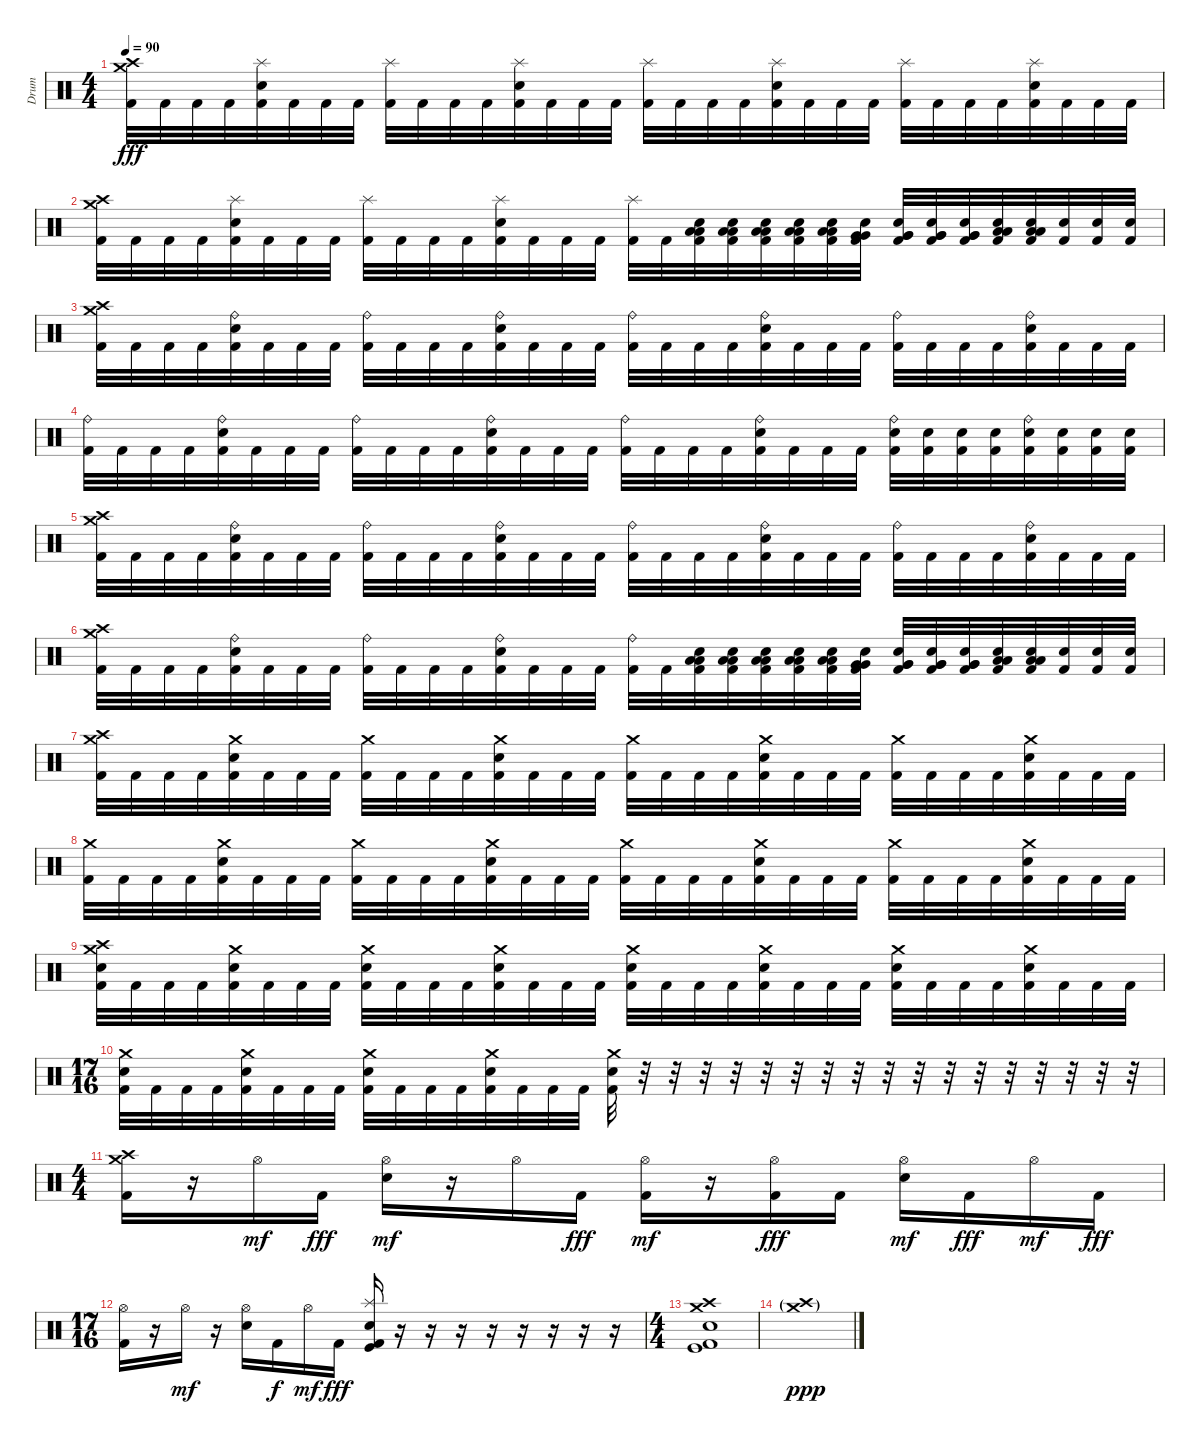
\track ("Drum" "Drum") {instrument percussion}
\staff {score}
\articulation defaults
\ts (4 4)
\tempo 90
\clef neutral
\ks c
("Crash medium (hit)" "Crash high (hit)" "Kick (hit) 2").32{dy fff} "Kick (hit) 2".32 "Kick (hit) 2".32 "Kick (hit) 2".32 ("Splash (hit)" "Electric Snare (hit)" "Kick (hit) 2").32 "Kick (hit) 2".32 "Kick (hit) 2".32 "Kick (hit) 2".32 ("Splash (hit)" "Kick (hit) 2").32 "Kick (hit) 2".32 "Kick (hit) 2".32 "Kick (hit) 2".32 ("Splash (hit)" "Electric Snare (hit)" "Kick (hit) 2").32 "Kick (hit) 2".32 "Kick (hit) 2".32 "Kick (hit) 2".32 ("Splash (hit)" "Kick (hit) 2").32 "Kick (hit) 2".32 "Kick (hit) 2".32 "Kick (hit) 2".32 ("Splash (hit)" "Electric Snare (hit)" "Kick (hit) 2").32 "Kick (hit) 2".32 "Kick (hit) 2".32 "Kick (hit) 2".32 ("Splash (hit)" "Kick (hit) 2").32 "Kick (hit) 2".32 "Kick (hit) 2".32 "Kick (hit) 2".32 ("Splash (hit)" "Electric Snare (hit)" "Kick (hit) 2").32 "Kick (hit) 2".32 "Kick (hit) 2".32 "Kick (hit) 2".32 |
("Crash medium (hit)" "Crash high (hit)" "Kick (hit) 2").32 "Kick (hit) 2".32 "Kick (hit) 2".32 "Kick (hit) 2".32 ("Splash (hit)" "Electric Snare (hit)" "Kick (hit) 2").32 "Kick (hit) 2".32 "Kick (hit) 2".32 "Kick (hit) 2".32 ("Splash (hit)" "Kick (hit) 2").32 "Kick (hit) 2".32 "Kick (hit) 2".32 "Kick (hit) 2".32 ("Splash (hit)" "Electric Snare (hit)" "Kick (hit) 2").32 "Kick (hit) 2".32 "Kick (hit) 2".32 "Kick (hit) 2".32 ("Splash (hit)" "Kick (hit) 2").32 "Kick (hit) 2".32 ("Snare (hit) 2" "Low Floor Tom (hit)" "Low Floor Tom (hit)" "Kick (hit) 2").32 ("Snare (hit) 2" "Low Floor Tom (hit)" "Low Floor Tom (hit)" "Kick (hit) 2").32 ("Snare (hit) 2" "Low Floor Tom (hit)" "Low Floor Tom (hit)" "Kick (hit) 2").32 ("Snare (hit) 2" "Low Floor Tom (hit)" "Low Floor Tom (hit)" "Kick (hit) 2").32 ("Snare (hit) 2" "Low Floor Tom (hit)" "Low Floor Tom (hit)" "Kick (hit) 2").32 ("Snare (hit) 2" "Very Low Tom (hit)" "Very Low Tom (hit)" "Kick (hit) 2").32 ("Snare (hit) 2" "Very Low Tom (hit)" "Very Low Tom (hit)" "Kick (hit) 2").32 ("Snare (hit) 2" "Very Low Tom (hit)" "Very Low Tom (hit)" "Kick (hit) 2").32 ("Snare (hit) 2" "Very Low Tom (hit)" "Very Low Tom (hit)" "Kick (hit) 2").32 ("Snare (hit) 2" "Low Tom (hit)" "Low Tom (hit)" "Kick (hit) 2").32 ("Snare (hit) 2" "Low Tom (hit)" "Low Tom (hit)" "Kick (hit) 2").32 ("Electric Snare (hit)" "Kick (hit) 2").32 ("Electric Snare (hit)" "Kick (hit) 2").32 ("Electric Snare (hit)" "Kick (hit) 2").32 |
("Crash medium (hit)" "Crash high (hit)" "Kick (hit) 2").32 "Kick (hit) 2".32 "Kick (hit) 2".32 "Kick (hit) 2".32 ("Ride (bell)" "Electric Snare (hit)" "Kick (hit) 2").32 "Kick (hit) 2".32 "Kick (hit) 2".32 "Kick (hit) 2".32 ("Ride (bell)" "Kick (hit) 2").32 "Kick (hit) 2".32 "Kick (hit) 2".32 "Kick (hit) 2".32 ("Ride (bell)" "Electric Snare (hit)" "Kick (hit) 2").32 "Kick (hit) 2".32 "Kick (hit) 2".32 "Kick (hit) 2".32 ("Ride (bell)" "Kick (hit) 2").32 "Kick (hit) 2".32 "Kick (hit) 2".32 "Kick (hit) 2".32 ("Ride (bell)" "Electric Snare (hit)" "Kick (hit) 2").32 "Kick (hit) 2".32 "Kick (hit) 2".32 "Kick (hit) 2".32 ("Ride (bell)" "Kick (hit) 2").32 "Kick (hit) 2".32 "Kick (hit) 2".32 "Kick (hit) 2".32 ("Ride (bell)" "Electric Snare (hit)" "Kick (hit) 2").32 "Kick (hit) 2".32 "Kick (hit) 2".32 "Kick (hit) 2".32 |
("Ride (bell)" "Kick (hit) 2").32 "Kick (hit) 2".32 "Kick (hit) 2".32 "Kick (hit) 2".32 ("Ride (bell)" "Electric Snare (hit)" "Kick (hit) 2").32 "Kick (hit) 2".32 "Kick (hit) 2".32 "Kick (hit) 2".32 ("Ride (bell)" "Kick (hit) 2").32 "Kick (hit) 2".32 "Kick (hit) 2".32 "Kick (hit) 2".32 ("Ride (bell)" "Electric Snare (hit)" "Kick (hit) 2").32 "Kick (hit) 2".32 "Kick (hit) 2".32 "Kick (hit) 2".32 ("Ride (bell)" "Kick (hit) 2").32 "Kick (hit) 2".32 "Kick (hit) 2".32 "Kick (hit) 2".32 ("Ride (bell)" "Electric Snare (hit)" "Kick (hit) 2").32 "Kick (hit) 2".32 "Kick (hit) 2".32 "Kick (hit) 2".32 ("Ride (bell)" "Electric Snare (hit)" "Kick (hit) 2").32 ("Electric Snare (hit)" "Kick (hit) 2").32 ("Electric Snare (hit)" "Kick (hit) 2").32 ("Electric Snare (hit)" "Kick (hit) 2").32 ("Ride (bell)" "Electric Snare (hit)" "Kick (hit) 2").32 ("Electric Snare (hit)" "Kick (hit) 2").32 ("Electric Snare (hit)" "Kick (hit) 2").32 ("Electric Snare (hit)" "Kick (hit) 2").32 |
("Crash medium (hit)" "Crash high (hit)" "Kick (hit) 2").32 "Kick (hit) 2".32 "Kick (hit) 2".32 "Kick (hit) 2".32 ("Ride (bell)" "Electric Snare (hit)" "Kick (hit) 2").32 "Kick (hit) 2".32 "Kick (hit) 2".32 "Kick (hit) 2".32 ("Ride (bell)" "Kick (hit) 2").32 "Kick (hit) 2".32 "Kick (hit) 2".32 "Kick (hit) 2".32 ("Ride (bell)" "Electric Snare (hit)" "Kick (hit) 2").32 "Kick (hit) 2".32 "Kick (hit) 2".32 "Kick (hit) 2".32 ("Ride (bell)" "Kick (hit) 2").32 "Kick (hit) 2".32 "Kick (hit) 2".32 "Kick (hit) 2".32 ("Ride (bell)" "Electric Snare (hit)" "Kick (hit) 2").32 "Kick (hit) 2".32 "Kick (hit) 2".32 "Kick (hit) 2".32 ("Ride (bell)" "Kick (hit) 2").32 "Kick (hit) 2".32 "Kick (hit) 2".32 "Kick (hit) 2".32 ("Ride (bell)" "Electric Snare (hit)" "Kick (hit) 2").32 "Kick (hit) 2".32 "Kick (hit) 2".32 "Kick (hit) 2".32 |
("Crash medium (hit)" "Crash high (hit)" "Kick (hit) 2").32 "Kick (hit) 2".32 "Kick (hit) 2".32 "Kick (hit) 2".32 ("Ride (bell)" "Electric Snare (hit)" "Kick (hit) 2").32 "Kick (hit) 2".32 "Kick (hit) 2".32 "Kick (hit) 2".32 ("Ride (bell)" "Kick (hit) 2").32 "Kick (hit) 2".32 "Kick (hit) 2".32 "Kick (hit) 2".32 ("Ride (bell)" "Electric Snare (hit)" "Kick (hit) 2").32 "Kick (hit) 2".32 "Kick (hit) 2".32 "Kick (hit) 2".32 ("Ride (bell)" "Kick (hit) 2").32 "Kick (hit) 2".32 ("Snare (hit) 2" "Low Floor Tom (hit)" "Low Floor Tom (hit)" "Kick (hit) 2").32 ("Snare (hit) 2" "Low Floor Tom (hit)" "Low Floor Tom (hit)" "Kick (hit) 2").32 ("Snare (hit) 2" "Low Floor Tom (hit)" "Low Floor Tom (hit)" "Kick (hit) 2").32 ("Snare (hit) 2" "Low Floor Tom (hit)" "Low Floor Tom (hit)" "Kick (hit) 2").32 ("Snare (hit) 2" "Low Floor Tom (hit)" "Low Floor Tom (hit)" "Kick (hit) 2").32 ("Snare (hit) 2" "Very Low Tom (hit)" "Very Low Tom (hit)" "Kick (hit) 2").32 ("Snare (hit) 2" "Very Low Tom (hit)" "Very Low Tom (hit)" "Kick (hit) 2").32 ("Snare (hit) 2" "Very Low Tom (hit)" "Very Low Tom (hit)" "Kick (hit) 2").32 ("Snare (hit) 2" "Very Low Tom (hit)" "Very Low Tom (hit)" "Kick (hit) 2").32 ("Snare (hit) 2" "Low Tom (hit)" "Low Tom (hit)" "Kick (hit) 2").32 ("Snare (hit) 2" "Low Tom (hit)" "Low Tom (hit)" "Kick (hit) 2").32 ("Electric Snare (hit)" "Kick (hit) 2").32 ("Electric Snare (hit)" "Kick (hit) 2").32 ("Electric Snare (hit)" "Kick (hit) 2").32 |
("Crash medium (hit)" "Crash high (hit)" "Kick (hit) 2").32 "Kick (hit) 2".32 "Kick (hit) 2".32 "Kick (hit) 2".32 ("Crash medium (hit)" "Electric Snare (hit)" "Kick (hit) 2").32 "Kick (hit) 2".32 "Kick (hit) 2".32 "Kick (hit) 2".32 ("Crash medium (hit)" "Kick (hit) 2").32 "Kick (hit) 2".32 "Kick (hit) 2".32 "Kick (hit) 2".32 ("Crash medium (hit)" "Electric Snare (hit)" "Kick (hit) 2").32 "Kick (hit) 2".32 "Kick (hit) 2".32 "Kick (hit) 2".32 ("Crash medium (hit)" "Kick (hit) 2").32 "Kick (hit) 2".32 "Kick (hit) 2".32 "Kick (hit) 2".32 ("Crash medium (hit)" "Electric Snare (hit)" "Kick (hit) 2").32 "Kick (hit) 2".32 "Kick (hit) 2".32 "Kick (hit) 2".32 ("Crash medium (hit)" "Kick (hit) 2").32 "Kick (hit) 2".32 "Kick (hit) 2".32 "Kick (hit) 2".32 ("Crash medium (hit)" "Electric Snare (hit)" "Kick (hit) 2").32 "Kick (hit) 2".32 "Kick (hit) 2".32 "Kick (hit) 2".32 |
("Crash medium (hit)" "Kick (hit) 2").32 "Kick (hit) 2".32 "Kick (hit) 2".32 "Kick (hit) 2".32 ("Crash medium (hit)" "Electric Snare (hit)" "Kick (hit) 2").32 "Kick (hit) 2".32 "Kick (hit) 2".32 "Kick (hit) 2".32 ("Crash medium (hit)" "Kick (hit) 2").32 "Kick (hit) 2".32 "Kick (hit) 2".32 "Kick (hit) 2".32 ("Crash medium (hit)" "Electric Snare (hit)" "Kick (hit) 2").32 "Kick (hit) 2".32 "Kick (hit) 2".32 "Kick (hit) 2".32 ("Crash medium (hit)" "Kick (hit) 2").32 "Kick (hit) 2".32 "Kick (hit) 2".32 "Kick (hit) 2".32 ("Crash medium (hit)" "Electric Snare (hit)" "Kick (hit) 2").32 "Kick (hit) 2".32 "Kick (hit) 2".32 "Kick (hit) 2".32 ("Crash medium (hit)" "Kick (hit) 2").32 "Kick (hit) 2".32 "Kick (hit) 2".32 "Kick (hit) 2".32 ("Crash medium (hit)" "Electric Snare (hit)" "Kick (hit) 2").32 "Kick (hit) 2".32 "Kick (hit) 2".32 "Kick (hit) 2".32 |
("Crash medium (hit)" "Crash high (hit)" "Electric Snare (hit)" "Kick (hit) 2").32 "Kick (hit) 2".32 "Kick (hit) 2".32 "Kick (hit) 2".32 ("Crash medium (hit)" "Electric Snare (hit)" "Kick (hit) 2").32 "Kick (hit) 2".32 "Kick (hit) 2".32 "Kick (hit) 2".32 ("Crash medium (hit)" "Electric Snare (hit)" "Kick (hit) 2").32 "Kick (hit) 2".32 "Kick (hit) 2".32 "Kick (hit) 2".32 ("Crash medium (hit)" "Electric Snare (hit)" "Kick (hit) 2").32 "Kick (hit) 2".32 "Kick (hit) 2".32 "Kick (hit) 2".32 ("Crash medium (hit)" "Electric Snare (hit)" "Kick (hit) 2").32 "Kick (hit) 2".32 "Kick (hit) 2".32 "Kick (hit) 2".32 ("Crash medium (hit)" "Electric Snare (hit)" "Kick (hit) 2").32 "Kick (hit) 2".32 "Kick (hit) 2".32 "Kick (hit) 2".32 ("Crash medium (hit)" "Electric Snare (hit)" "Kick (hit) 2").32 "Kick (hit) 2".32 "Kick (hit) 2".32 "Kick (hit) 2".32 ("Crash medium (hit)" "Electric Snare (hit)" "Kick (hit) 2").32 "Kick (hit) 2".32 "Kick (hit) 2".32 "Kick (hit) 2".32 |
\ts (17 16)
("Crash medium (hit)" "Electric Snare (hit)" "Kick (hit) 2").32 "Kick (hit) 2".32 "Kick (hit) 2".32 "Kick (hit) 2".32 ("Crash medium (hit)" "Electric Snare (hit)" "Kick (hit) 2").32 "Kick (hit) 2".32 "Kick (hit) 2".32 "Kick (hit) 2".32 ("Crash medium (hit)" "Electric Snare (hit)" "Kick (hit) 2").32 "Kick (hit) 2".32 "Kick (hit) 2".32 "Kick (hit) 2".32 ("Crash medium (hit)" "Electric Snare (hit)" "Kick (hit) 2").32 "Kick (hit) 2".32 "Kick (hit) 2".32 "Kick (hit) 2".32 ("Crash medium (hit)" "Electric Snare (hit)" "Kick (hit) 2").32 r.32 r.32 r.32 r.32 r.32 r.32 r.32 r.32 r.32 r.32 r.32 r.32 r.32 r.32 r.32 r.32 r.32 |
\ts (4 4)
("Crash medium (hit)" "Crash high (hit)" "Kick (hit) 2").16 r.16 "Hi-Hat (open)".16{dy mf} "Kick (hit) 2".16{dy fff} ("Hi-Hat (open)" "Electric Snare (hit)").16{dy mf} r.16 "Hi-Hat (open)".16 "Kick (hit) 2".16{dy fff} ("Hi-Hat (open)" "Kick (hit) 2").16{dy mf} r.16 ("Hi-Hat (open)" "Kick (hit) 2").16{dy fff} "Kick (hit) 2".16 ("Hi-Hat (open)" "Electric Snare (hit)").16{dy mf} "Kick (hit) 2".16{dy fff} "Hi-Hat (open)".16{dy mf} "Kick (hit) 2".16{dy fff} |
\ts (17 16)
("Hi-Hat (open)" "Kick (hit) 2").16 r.16 "Hi-Hat (open)".16{dy mf} r.16 ("Hi-Hat (open)" "Electric Snare (hit)").16 "Kick (hit) 2".16{dy f} "Hi-Hat (open)".16{dy mf} "Kick (hit) 2".16{dy fff} ("Splash (hit)" "Electric Snare (hit)" "Kick (hit)" "Kick (hit) 2").16 r.16 r.16 r.16 r.16 r.16 r.16 r.16 r.16 |
\ts (4 4)
("Crash high (hit)" "Crash medium (hit)" "Electric Snare (hit)" "Kick (hit)" "Kick (hit) 2").1 |
("Crash medium (hit)"{g} "Crash high (hit)"{g}).1{dy ppp}
